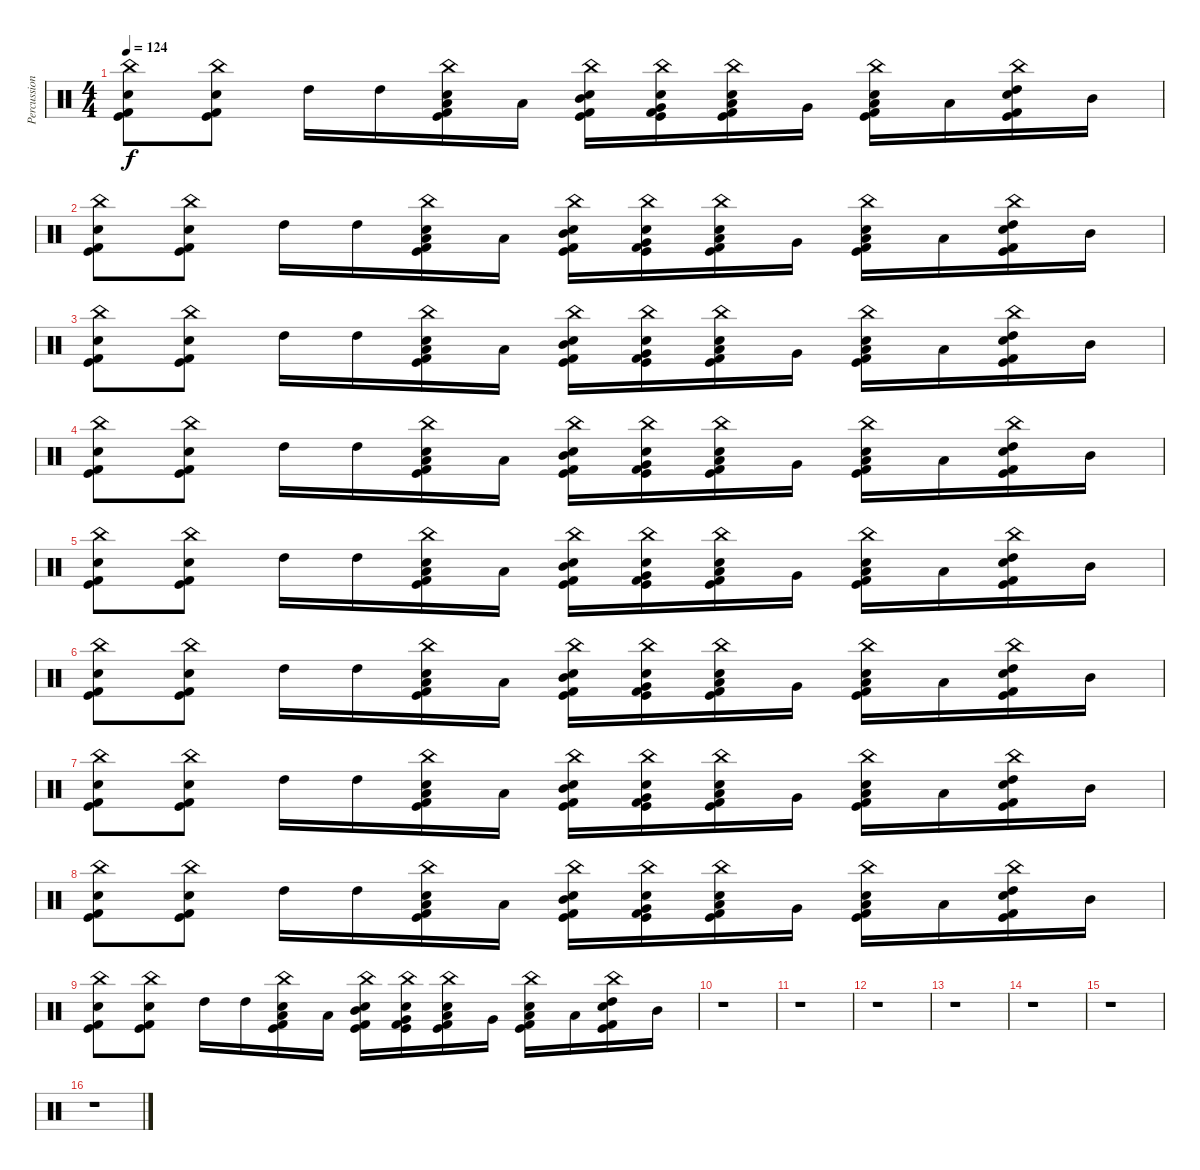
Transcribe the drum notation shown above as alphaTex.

\track ("Percussion" "Percussion") {instrument percussion}
\staff {score}
\articulation defaults
\ts (4 4)
\tempo 124
\clef neutral
\ks c
("China (hit)" "Snare (hit) 2" "Kick (hit) 2" "Kick (hit)").8{dy f} ("China (hit)" "Snare (hit) 2" "Kick (hit) 2" "Kick (hit)").8 "High Tom (hit)".16 "High Tom (hit)".16 ("China (hit)" "Snare (hit) 2" "Low Tom (hit)" "Kick (hit) 2" "Kick (hit)").16 "Low Tom (hit)".16 ("China (hit)" "Snare (hit) 2" "Mid Tom (hit)" "Kick (hit) 2" "Kick (hit)").16 ("China (hit)" "Snare (hit) 2" "Very Low Tom (hit)" "Kick (hit) 2" "Kick (hit)").16 ("China (hit)" "Snare (hit) 2" "Low Floor Tom (hit)" "Kick (hit) 2" "Kick (hit)").16 "Very Low Tom (hit)".16 ("China (hit)" "Snare (hit) 2" "Low Tom (hit)" "Kick (hit) 2" "Kick (hit)").16 "Low Tom (hit)".16 ("China (hit)" "Snare (hit) 2" "High Tom (hit)" "Kick (hit) 2" "Kick (hit)").16 "Mid Tom (hit)".16 |
("China (hit)" "Snare (hit) 2" "Kick (hit) 2" "Kick (hit)").8{volume 10} ("China (hit)" "Snare (hit) 2" "Kick (hit) 2" "Kick (hit)").8 "High Tom (hit)".16 "High Tom (hit)".16 ("China (hit)" "Snare (hit) 2" "Low Tom (hit)" "Kick (hit) 2" "Kick (hit)").16 "Low Tom (hit)".16 ("China (hit)" "Snare (hit) 2" "Mid Tom (hit)" "Kick (hit) 2" "Kick (hit)").16 ("China (hit)" "Snare (hit) 2" "Very Low Tom (hit)" "Kick (hit) 2" "Kick (hit)").16 ("China (hit)" "Snare (hit) 2" "Low Floor Tom (hit)" "Kick (hit) 2" "Kick (hit)").16 "Very Low Tom (hit)".16 ("China (hit)" "Snare (hit) 2" "Low Tom (hit)" "Kick (hit) 2" "Kick (hit)").16 "Low Tom (hit)".16 ("China (hit)" "Snare (hit) 2" "High Tom (hit)" "Kick (hit) 2" "Kick (hit)").16 "Mid Tom (hit)".16 |
("China (hit)" "Snare (hit) 2" "Kick (hit) 2" "Kick (hit)").8 ("China (hit)" "Snare (hit) 2" "Kick (hit) 2" "Kick (hit)").8 "High Tom (hit)".16 "High Tom (hit)".16 ("China (hit)" "Snare (hit) 2" "Low Tom (hit)" "Kick (hit) 2" "Kick (hit)").16 "Low Tom (hit)".16 ("China (hit)" "Snare (hit) 2" "Mid Tom (hit)" "Kick (hit) 2" "Kick (hit)").16 ("China (hit)" "Snare (hit) 2" "Very Low Tom (hit)" "Kick (hit) 2" "Kick (hit)").16 ("China (hit)" "Snare (hit) 2" "Low Floor Tom (hit)" "Kick (hit) 2" "Kick (hit)").16 "Very Low Tom (hit)".16 ("China (hit)" "Snare (hit) 2" "Low Tom (hit)" "Kick (hit) 2" "Kick (hit)").16 "Low Tom (hit)".16 ("China (hit)" "Snare (hit) 2" "High Tom (hit)" "Kick (hit) 2" "Kick (hit)").16 "Mid Tom (hit)".16 |
("China (hit)" "Snare (hit) 2" "Kick (hit) 2" "Kick (hit)").8{volume 6} ("China (hit)" "Snare (hit) 2" "Kick (hit) 2" "Kick (hit)").8 "High Tom (hit)".16 "High Tom (hit)".16 ("China (hit)" "Snare (hit) 2" "Low Tom (hit)" "Kick (hit) 2" "Kick (hit)").16 "Low Tom (hit)".16 ("China (hit)" "Snare (hit) 2" "Mid Tom (hit)" "Kick (hit) 2" "Kick (hit)").16 ("China (hit)" "Snare (hit) 2" "Very Low Tom (hit)" "Kick (hit) 2" "Kick (hit)").16 ("China (hit)" "Snare (hit) 2" "Low Floor Tom (hit)" "Kick (hit) 2" "Kick (hit)").16 "Very Low Tom (hit)".16 ("China (hit)" "Snare (hit) 2" "Low Tom (hit)" "Kick (hit) 2" "Kick (hit)").16 "Low Tom (hit)".16 ("China (hit)" "Snare (hit) 2" "High Tom (hit)" "Kick (hit) 2" "Kick (hit)").16 "Mid Tom (hit)".16 |
("China (hit)" "Snare (hit) 2" "Kick (hit) 2" "Kick (hit)").8 ("China (hit)" "Snare (hit) 2" "Kick (hit) 2" "Kick (hit)").8 "High Tom (hit)".16 "High Tom (hit)".16 ("China (hit)" "Snare (hit) 2" "Low Tom (hit)" "Kick (hit) 2" "Kick (hit)").16 "Low Tom (hit)".16 ("China (hit)" "Snare (hit) 2" "Mid Tom (hit)" "Kick (hit) 2" "Kick (hit)").16 ("China (hit)" "Snare (hit) 2" "Very Low Tom (hit)" "Kick (hit) 2" "Kick (hit)").16 ("China (hit)" "Snare (hit) 2" "Low Floor Tom (hit)" "Kick (hit) 2" "Kick (hit)").16 "Very Low Tom (hit)".16 ("China (hit)" "Snare (hit) 2" "Low Tom (hit)" "Kick (hit) 2" "Kick (hit)").16 "Low Tom (hit)".16 ("China (hit)" "Snare (hit) 2" "High Tom (hit)" "Kick (hit) 2" "Kick (hit)").16 "Mid Tom (hit)".16 |
("China (hit)" "Snare (hit) 2" "Kick (hit) 2" "Kick (hit)").8{volume 3} ("China (hit)" "Snare (hit) 2" "Kick (hit) 2" "Kick (hit)").8 "High Tom (hit)".16 "High Tom (hit)".16 ("China (hit)" "Snare (hit) 2" "Low Tom (hit)" "Kick (hit) 2" "Kick (hit)").16 "Low Tom (hit)".16 ("China (hit)" "Snare (hit) 2" "Mid Tom (hit)" "Kick (hit) 2" "Kick (hit)").16 ("China (hit)" "Snare (hit) 2" "Very Low Tom (hit)" "Kick (hit) 2" "Kick (hit)").16 ("China (hit)" "Snare (hit) 2" "Low Floor Tom (hit)" "Kick (hit) 2" "Kick (hit)").16 "Very Low Tom (hit)".16 ("China (hit)" "Snare (hit) 2" "Low Tom (hit)" "Kick (hit) 2" "Kick (hit)").16 "Low Tom (hit)".16 ("China (hit)" "Snare (hit) 2" "High Tom (hit)" "Kick (hit) 2" "Kick (hit)").16 "Mid Tom (hit)".16 |
("China (hit)" "Snare (hit) 2" "Kick (hit) 2" "Kick (hit)").8 ("China (hit)" "Snare (hit) 2" "Kick (hit) 2" "Kick (hit)").8 "High Tom (hit)".16 "High Tom (hit)".16 ("China (hit)" "Snare (hit) 2" "Low Tom (hit)" "Kick (hit) 2" "Kick (hit)").16 "Low Tom (hit)".16 ("China (hit)" "Snare (hit) 2" "Mid Tom (hit)" "Kick (hit) 2" "Kick (hit)").16 ("China (hit)" "Snare (hit) 2" "Very Low Tom (hit)" "Kick (hit) 2" "Kick (hit)").16 ("China (hit)" "Snare (hit) 2" "Low Floor Tom (hit)" "Kick (hit) 2" "Kick (hit)").16 "Very Low Tom (hit)".16 ("China (hit)" "Snare (hit) 2" "Low Tom (hit)" "Kick (hit) 2" "Kick (hit)").16 "Low Tom (hit)".16 ("China (hit)" "Snare (hit) 2" "High Tom (hit)" "Kick (hit) 2" "Kick (hit)").16 "Mid Tom (hit)".16 |
("China (hit)" "Snare (hit) 2" "Kick (hit) 2" "Kick (hit)").8{volume 0} ("China (hit)" "Snare (hit) 2" "Kick (hit) 2" "Kick (hit)").8 "High Tom (hit)".16 "High Tom (hit)".16 ("China (hit)" "Snare (hit) 2" "Low Tom (hit)" "Kick (hit) 2" "Kick (hit)").16 "Low Tom (hit)".16 ("China (hit)" "Snare (hit) 2" "Mid Tom (hit)" "Kick (hit) 2" "Kick (hit)").16 ("China (hit)" "Snare (hit) 2" "Very Low Tom (hit)" "Kick (hit) 2" "Kick (hit)").16 ("China (hit)" "Snare (hit) 2" "Low Floor Tom (hit)" "Kick (hit) 2" "Kick (hit)").16 "Very Low Tom (hit)".16 ("China (hit)" "Snare (hit) 2" "Low Tom (hit)" "Kick (hit) 2" "Kick (hit)").16 "Low Tom (hit)".16 ("China (hit)" "Snare (hit) 2" "High Tom (hit)" "Kick (hit) 2" "Kick (hit)").16 "Mid Tom (hit)".16 |
("China (hit)" "Snare (hit) 2" "Kick (hit) 2" "Kick (hit)").8 ("China (hit)" "Snare (hit) 2" "Kick (hit) 2" "Kick (hit)").8 "High Tom (hit)".16 "High Tom (hit)".16 ("China (hit)" "Snare (hit) 2" "Low Tom (hit)" "Kick (hit) 2" "Kick (hit)").16 "Low Tom (hit)".16 ("China (hit)" "Snare (hit) 2" "Mid Tom (hit)" "Kick (hit) 2" "Kick (hit)").16 ("China (hit)" "Snare (hit) 2" "Very Low Tom (hit)" "Kick (hit) 2" "Kick (hit)").16 ("China (hit)" "Snare (hit) 2" "Low Floor Tom (hit)" "Kick (hit) 2" "Kick (hit)").16 "Very Low Tom (hit)".16 ("China (hit)" "Snare (hit) 2" "Low Tom (hit)" "Kick (hit) 2" "Kick (hit)").16 "Low Tom (hit)".16 ("China (hit)" "Snare (hit) 2" "High Tom (hit)" "Kick (hit) 2" "Kick (hit)").16 "Mid Tom (hit)".16 |
r.1 |
r.1 |
r.1 |
r.1 |
r.1 |
r.1 |
r.1
